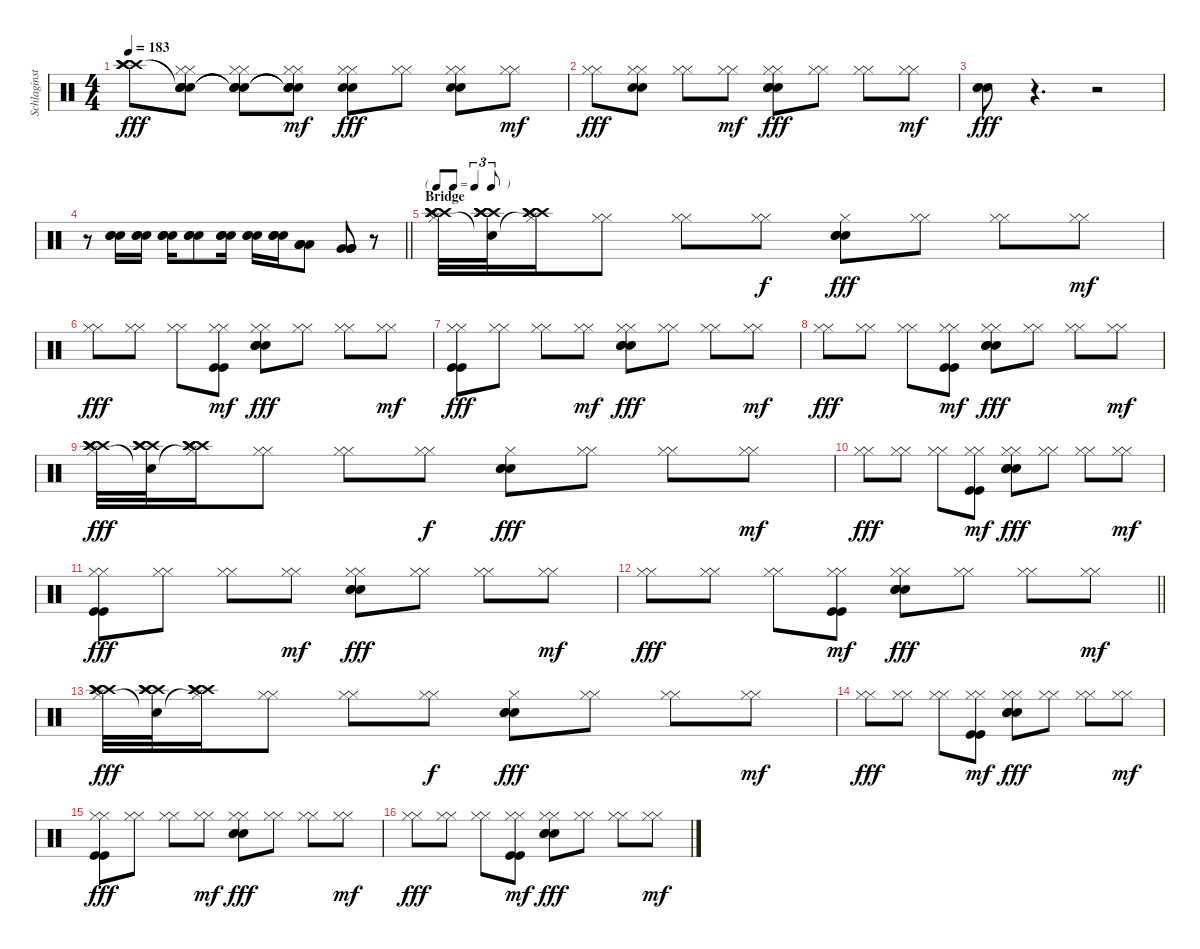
\track ("Schlaginstrumente - Auswahl" "Schlaginst") {instrument percussion}
\staff {score}
\articulation defaults
\ts (4 4)
\tempo 183
\clef neutral
\ks c
("Crash high (hit)" "Crash high (hit)" "Crash high (hit)" "Crash high (hit)").8{dy fff} ("Hi-Hat (closed)" "Hi-Hat (closed)" "Snare (hit)"{t} "Snare (hit)"{t} "Snare (hit)"{t} "Snare (hit)").8 ("Hi-Hat (closed)" "Hi-Hat (closed)" "Snare (hit)"{t} "Snare (hit)"{t} "Snare (hit)"{t} "Snare (hit)"{t}).8 ("Hi-Hat (closed)" "Hi-Hat (closed)" "Snare (hit)"{t} "Snare (hit)"{t} "Snare (hit)"{t} "Snare (hit)"{t}).8{dy mf} ("Hi-Hat (closed)" "Hi-Hat (closed)" "Snare (hit) 2" "Snare (hit) 2").8{dy fff} ("Hi-Hat (closed)" "Hi-Hat (closed)").8 ("Hi-Hat (closed)" "Hi-Hat (closed)" "Snare (hit) 2" "Snare (hit) 2").8 ("Hi-Hat (closed)" "Hi-Hat (closed)").8{dy mf} |
("Hi-Hat (closed)" "Hi-Hat (closed)").8{dy fff} ("Hi-Hat (closed)" "Hi-Hat (closed)" "Snare (hit) 2" "Snare (hit) 2").8 ("Hi-Hat (closed)" "Hi-Hat (closed)").8 ("Hi-Hat (closed)" "Hi-Hat (closed)").8{dy mf} ("Hi-Hat (closed)" "Hi-Hat (closed)" "Snare (hit) 2" "Snare (hit) 2" "Snare (hit) 2").8{dy fff} ("Hi-Hat (closed)" "Hi-Hat (closed)").8 ("Hi-Hat (closed)" "Hi-Hat (closed)").8 ("Hi-Hat (closed)" "Hi-Hat (closed)").8{dy mf} |
("Snare (hit) 2" "Snare (hit) 2" "Snare (hit) 2").8{dy fff} r.4{d} r.2 |
\barLineRight lightlight
r.8 ("Snare (hit) 2" "Snare (hit) 2" "Snare (hit) 2").16 ("Snare (hit) 2" "Snare (hit) 2" "Snare (hit) 2").16 ("Snare (hit) 2" "Snare (hit) 2" "Snare (hit) 2").16 ("Snare (hit) 2" "Snare (hit) 2" "Snare (hit) 2").8 ("Snare (hit) 2" "Snare (hit) 2" "Snare (hit) 2").16 ("Snare (hit) 2" "Snare (hit) 2" "Snare (hit) 2").16 ("Snare (hit) 2" "Snare (hit) 2" "Snare (hit) 2").16 ("Low Tom (hit)" "Low Tom (hit)" "Low Tom (hit)" "Low Tom (hit)").8 ("Very Low Tom (hit)" "Very Low Tom (hit)" "Very Low Tom (hit)" "Very Low Tom (hit)").8 r.8 |
\tf triplet8th
\section ("" "Bridge")
("Hi-Hat (closed)" "Crash high (hit)" "Crash high (hit)" "Crash high (hit)" "Crash high (hit)").32 ("Snare (hit)"{t} "Crash high (hit)" "Crash high (hit)" "Crash high (hit)" "Crash high (hit)").32 ("Hi-Hat (closed)"{t} "Crash high (hit)" "Crash high (hit)" "Crash high (hit)" "Crash high (hit)").16 ("Hi-Hat (closed)" "Hi-Hat (closed)").8 ("Hi-Hat (closed)" "Hi-Hat (closed)").8 ("Hi-Hat (closed)" "Hi-Hat (closed)").8{dy f} ("Hi-Hat (closed)" "Snare (hit) 2" "Snare (hit) 2" "Snare (hit) 2").8{dy fff} ("Hi-Hat (closed)" "Hi-Hat (closed)").8 ("Hi-Hat (closed)" "Hi-Hat (closed)").8 ("Hi-Hat (closed)" "Hi-Hat (closed)").8{dy mf} |
("Hi-Hat (closed)" "Hi-Hat (closed)").8{dy fff} ("Hi-Hat (closed)" "Hi-Hat (closed)").8 ("Hi-Hat (closed)" "Hi-Hat (closed)").8 ("Hi-Hat (closed)" "Hi-Hat (closed)" "Kick (hit)" "Kick (hit)").8{dy mf} ("Hi-Hat (closed)" "Hi-Hat (closed)" "Snare (hit) 2" "Snare (hit) 2" "Snare (hit) 2" "Snare (hit) 2").8{dy fff} ("Hi-Hat (closed)" "Hi-Hat (closed)").8 ("Hi-Hat (closed)" "Hi-Hat (closed)").8 ("Hi-Hat (closed)" "Hi-Hat (closed)").8{dy mf} |
("Hi-Hat (closed)" "Hi-Hat (closed)" "Kick (hit)" "Kick (hit)").8{dy fff} ("Hi-Hat (closed)" "Hi-Hat (closed)").8 ("Hi-Hat (closed)" "Hi-Hat (closed)").8 ("Hi-Hat (closed)" "Hi-Hat (closed)").8{dy mf} ("Hi-Hat (closed)" "Hi-Hat (closed)" "Snare (hit) 2" "Snare (hit) 2" "Snare (hit) 2").8{dy fff} ("Hi-Hat (closed)" "Hi-Hat (closed)").8 ("Hi-Hat (closed)" "Hi-Hat (closed)").8 ("Hi-Hat (closed)" "Hi-Hat (closed)").8{dy mf} |
("Hi-Hat (closed)" "Hi-Hat (closed)").8{dy fff} ("Hi-Hat (closed)" "Hi-Hat (closed)").8 ("Hi-Hat (closed)" "Hi-Hat (closed)").8 ("Hi-Hat (closed)" "Hi-Hat (closed)" "Kick (hit)" "Kick (hit)").8{dy mf} ("Hi-Hat (closed)" "Hi-Hat (closed)" "Snare (hit) 2" "Snare (hit) 2" "Snare (hit) 2").8{dy fff} ("Hi-Hat (closed)" "Hi-Hat (closed)").8 ("Hi-Hat (closed)" "Hi-Hat (closed)").8 ("Hi-Hat (closed)" "Hi-Hat (closed)").8{dy mf} |
("Hi-Hat (closed)" "Crash high (hit)" "Crash high (hit)" "Crash high (hit)" "Crash high (hit)").32{dy fff} ("Snare (hit)"{t} "Crash high (hit)" "Crash high (hit)" "Crash high (hit)" "Crash high (hit)").32 ("Hi-Hat (closed)"{t} "Crash high (hit)" "Crash high (hit)" "Crash high (hit)" "Crash high (hit)").16 ("Hi-Hat (closed)" "Hi-Hat (closed)").8 ("Hi-Hat (closed)" "Hi-Hat (closed)").8 ("Hi-Hat (closed)" "Hi-Hat (closed)").8{dy f} ("Hi-Hat (closed)" "Snare (hit) 2" "Snare (hit) 2" "Snare (hit) 2").8{dy fff} ("Hi-Hat (closed)" "Hi-Hat (closed)").8 ("Hi-Hat (closed)" "Hi-Hat (closed)").8 ("Hi-Hat (closed)" "Hi-Hat (closed)").8{dy mf} |
("Hi-Hat (closed)" "Hi-Hat (closed)").8{dy fff} ("Hi-Hat (closed)" "Hi-Hat (closed)").8 ("Hi-Hat (closed)" "Hi-Hat (closed)").8 ("Hi-Hat (closed)" "Hi-Hat (closed)" "Kick (hit)" "Kick (hit)").8{dy mf} ("Hi-Hat (closed)" "Hi-Hat (closed)" "Snare (hit) 2" "Snare (hit) 2" "Snare (hit) 2" "Snare (hit) 2").8{dy fff} ("Hi-Hat (closed)" "Hi-Hat (closed)").8 ("Hi-Hat (closed)" "Hi-Hat (closed)").8 ("Hi-Hat (closed)" "Hi-Hat (closed)").8{dy mf} |
("Hi-Hat (closed)" "Hi-Hat (closed)" "Kick (hit)" "Kick (hit)").8{dy fff} ("Hi-Hat (closed)" "Hi-Hat (closed)").8 ("Hi-Hat (closed)" "Hi-Hat (closed)").8 ("Hi-Hat (closed)" "Hi-Hat (closed)").8{dy mf} ("Hi-Hat (closed)" "Hi-Hat (closed)" "Snare (hit) 2" "Snare (hit) 2" "Snare (hit) 2").8{dy fff} ("Hi-Hat (closed)" "Hi-Hat (closed)").8 ("Hi-Hat (closed)" "Hi-Hat (closed)").8 ("Hi-Hat (closed)" "Hi-Hat (closed)").8{dy mf} |
\barLineRight lightlight
("Hi-Hat (closed)" "Hi-Hat (closed)").8{dy fff} ("Hi-Hat (closed)" "Hi-Hat (closed)").8 ("Hi-Hat (closed)" "Hi-Hat (closed)").8 ("Hi-Hat (closed)" "Hi-Hat (closed)" "Kick (hit)" "Kick (hit)").8{dy mf} ("Hi-Hat (closed)" "Hi-Hat (closed)" "Snare (hit) 2" "Snare (hit) 2" "Snare (hit) 2").8{dy fff} ("Hi-Hat (closed)" "Hi-Hat (closed)").8 ("Hi-Hat (closed)" "Hi-Hat (closed)").8 ("Hi-Hat (closed)" "Hi-Hat (closed)").8{dy mf} |
("Hi-Hat (closed)" "Crash high (hit)" "Crash high (hit)" "Crash high (hit)" "Crash high (hit)").32{dy fff} ("Snare (hit)"{t} "Crash high (hit)" "Crash high (hit)" "Crash high (hit)" "Crash high (hit)").32 ("Hi-Hat (closed)"{t} "Crash high (hit)" "Crash high (hit)" "Crash high (hit)" "Crash high (hit)").16 ("Hi-Hat (closed)" "Hi-Hat (closed)").8 ("Hi-Hat (closed)" "Hi-Hat (closed)").8 ("Hi-Hat (closed)" "Hi-Hat (closed)").8{dy f} ("Hi-Hat (closed)" "Snare (hit) 2" "Snare (hit) 2" "Snare (hit) 2").8{dy fff} ("Hi-Hat (closed)" "Hi-Hat (closed)").8 ("Hi-Hat (closed)" "Hi-Hat (closed)").8 ("Hi-Hat (closed)" "Hi-Hat (closed)").8{dy mf} |
("Hi-Hat (closed)" "Hi-Hat (closed)").8{dy fff} ("Hi-Hat (closed)" "Hi-Hat (closed)").8 ("Hi-Hat (closed)" "Hi-Hat (closed)").8 ("Hi-Hat (closed)" "Hi-Hat (closed)" "Kick (hit)" "Kick (hit)").8{dy mf} ("Hi-Hat (closed)" "Hi-Hat (closed)" "Snare (hit) 2" "Snare (hit) 2" "Snare (hit) 2" "Snare (hit) 2").8{dy fff} ("Hi-Hat (closed)" "Hi-Hat (closed)").8 ("Hi-Hat (closed)" "Hi-Hat (closed)").8 ("Hi-Hat (closed)" "Hi-Hat (closed)").8{dy mf} |
("Hi-Hat (closed)" "Hi-Hat (closed)" "Kick (hit)" "Kick (hit)").8{dy fff} ("Hi-Hat (closed)" "Hi-Hat (closed)").8 ("Hi-Hat (closed)" "Hi-Hat (closed)").8 ("Hi-Hat (closed)" "Hi-Hat (closed)").8{dy mf} ("Hi-Hat (closed)" "Hi-Hat (closed)" "Snare (hit) 2" "Snare (hit) 2" "Snare (hit) 2").8{dy fff} ("Hi-Hat (closed)" "Hi-Hat (closed)").8 ("Hi-Hat (closed)" "Hi-Hat (closed)").8 ("Hi-Hat (closed)" "Hi-Hat (closed)").8{dy mf} |
("Hi-Hat (closed)" "Hi-Hat (closed)").8{dy fff} ("Hi-Hat (closed)" "Hi-Hat (closed)").8 ("Hi-Hat (closed)" "Hi-Hat (closed)").8 ("Hi-Hat (closed)" "Hi-Hat (closed)" "Kick (hit)" "Kick (hit)").8{dy mf} ("Hi-Hat (closed)" "Hi-Hat (closed)" "Snare (hit) 2" "Snare (hit) 2" "Snare (hit) 2").8{dy fff} ("Hi-Hat (closed)" "Hi-Hat (closed)").8 ("Hi-Hat (closed)" "Hi-Hat (closed)").8 ("Hi-Hat (closed)" "Hi-Hat (closed)").8{dy mf}
